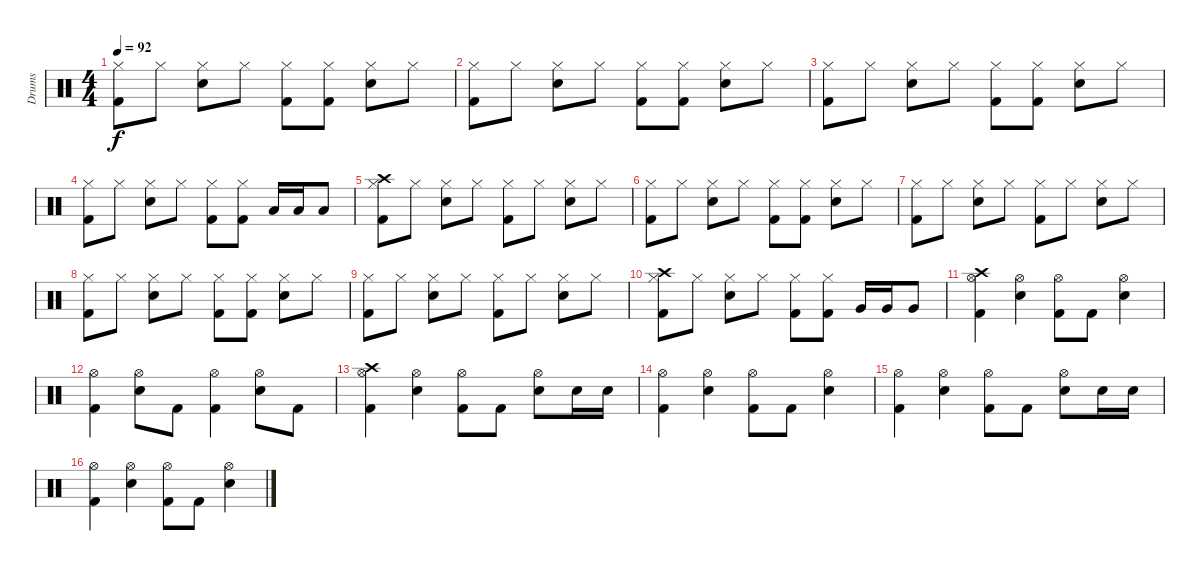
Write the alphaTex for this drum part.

\track ("Drums" "Drums") {instrument percussion}
\staff {score}
\articulation defaults
\ts (4 4)
\tempo 92
\clef neutral
\ks c
("Kick (hit) 2" "Hi-Hat (closed)").8{dy f} "Hi-Hat (closed)".8 ("Electric Snare (hit)" "Hi-Hat (closed)").8 "Hi-Hat (closed)".8 ("Kick (hit) 2" "Hi-Hat (closed)").8 ("Kick (hit) 2" "Hi-Hat (closed)").8 ("Electric Snare (hit)" "Hi-Hat (closed)").8 "Hi-Hat (closed)".8 |
("Kick (hit) 2" "Hi-Hat (closed)").8 "Hi-Hat (closed)".8 ("Electric Snare (hit)" "Hi-Hat (closed)").8 "Hi-Hat (closed)".8 ("Kick (hit) 2" "Hi-Hat (closed)").8 ("Kick (hit) 2" "Hi-Hat (closed)").8 ("Electric Snare (hit)" "Hi-Hat (closed)").8 "Hi-Hat (closed)".8 |
("Kick (hit) 2" "Hi-Hat (closed)").8 "Hi-Hat (closed)".8 ("Electric Snare (hit)" "Hi-Hat (closed)").8 "Hi-Hat (closed)".8 ("Kick (hit) 2" "Hi-Hat (closed)").8 ("Kick (hit) 2" "Hi-Hat (closed)").8 ("Electric Snare (hit)" "Hi-Hat (closed)").8 "Hi-Hat (closed)".8 |
("Kick (hit) 2" "Hi-Hat (closed)").8 "Hi-Hat (closed)".8 ("Electric Snare (hit)" "Hi-Hat (closed)").8 "Hi-Hat (closed)".8 ("Kick (hit) 2" "Hi-Hat (closed)").8 ("Kick (hit) 2" "Hi-Hat (closed)").8 "Low Tom (hit)".16 "Low Tom (hit)".16 "Low Tom (hit)".8 |
("Kick (hit) 2" "Hi-Hat (closed)" "Crash high (hit)").8 "Hi-Hat (closed)".8 ("Electric Snare (hit)" "Hi-Hat (closed)").8 "Hi-Hat (closed)".8 ("Kick (hit) 2" "Hi-Hat (closed)").8 "Hi-Hat (closed)".8 ("Electric Snare (hit)" "Hi-Hat (closed)").8 "Hi-Hat (closed)".8 |
("Kick (hit) 2" "Hi-Hat (closed)").8 "Hi-Hat (closed)".8 ("Electric Snare (hit)" "Hi-Hat (closed)").8 "Hi-Hat (closed)".8 ("Kick (hit) 2" "Hi-Hat (closed)").8 ("Kick (hit) 2" "Hi-Hat (closed)").8 ("Electric Snare (hit)" "Hi-Hat (closed)").8 "Hi-Hat (closed)".8 |
("Kick (hit) 2" "Hi-Hat (closed)").8 "Hi-Hat (closed)".8 ("Electric Snare (hit)" "Hi-Hat (closed)").8 "Hi-Hat (closed)".8 ("Kick (hit) 2" "Hi-Hat (closed)").8 "Hi-Hat (closed)".8 ("Electric Snare (hit)" "Hi-Hat (closed)").8 "Hi-Hat (closed)".8 |
("Kick (hit) 2" "Hi-Hat (closed)").8 "Hi-Hat (closed)".8 ("Electric Snare (hit)" "Hi-Hat (closed)").8 "Hi-Hat (closed)".8 ("Kick (hit) 2" "Hi-Hat (closed)").8 ("Kick (hit) 2" "Hi-Hat (closed)").8 ("Electric Snare (hit)" "Hi-Hat (closed)").8 "Hi-Hat (closed)".8 |
("Kick (hit) 2" "Hi-Hat (closed)").8 "Hi-Hat (closed)".8 ("Electric Snare (hit)" "Hi-Hat (closed)").8 "Hi-Hat (closed)".8 ("Kick (hit) 2" "Hi-Hat (closed)").8 "Hi-Hat (closed)".8 ("Electric Snare (hit)" "Hi-Hat (closed)").8 "Hi-Hat (closed)".8 |
("Kick (hit) 2" "Hi-Hat (closed)" "Crash high (hit)").8 "Hi-Hat (closed)".8 ("Electric Snare (hit)" "Hi-Hat (closed)").8 "Hi-Hat (closed)".8 ("Kick (hit) 2" "Hi-Hat (closed)").8 ("Kick (hit) 2" "Hi-Hat (closed)").8 "Very Low Tom (hit)".16 "Very Low Tom (hit)".16 "Very Low Tom (hit)".8 |
("Kick (hit) 2" "Hi-Hat (open)" "Crash high (hit)").4 ("Electric Snare (hit)" "Hi-Hat (open)").4 ("Kick (hit) 2" "Hi-Hat (open)").8 "Kick (hit) 2".8 ("Electric Snare (hit)" "Hi-Hat (open)").4 |
("Kick (hit) 2" "Hi-Hat (open)").4 ("Electric Snare (hit)" "Hi-Hat (open)").8 "Kick (hit) 2".8 ("Kick (hit) 2" "Hi-Hat (open)").4 ("Electric Snare (hit)" "Hi-Hat (open)").8 "Kick (hit) 2".8 |
("Kick (hit) 2" "Hi-Hat (open)" "Crash high (hit)").4 ("Electric Snare (hit)" "Hi-Hat (open)").4 ("Kick (hit) 2" "Hi-Hat (open)").8 "Kick (hit) 2".8 ("Electric Snare (hit)" "Hi-Hat (open)").8 "Electric Snare (hit)".16 "Electric Snare (hit)".16 |
("Kick (hit) 2" "Hi-Hat (open)").4 ("Electric Snare (hit)" "Hi-Hat (open)").4 ("Kick (hit) 2" "Hi-Hat (open)").8 "Kick (hit) 2".8 ("Electric Snare (hit)" "Hi-Hat (open)").4 |
("Kick (hit) 2" "Hi-Hat (open)").4 ("Electric Snare (hit)" "Hi-Hat (open)").4 ("Kick (hit) 2" "Hi-Hat (open)").8 "Kick (hit) 2".8 ("Electric Snare (hit)" "Hi-Hat (open)").8 "Electric Snare (hit)".16 "Electric Snare (hit)".16 |
("Kick (hit) 2" "Hi-Hat (open)").4 ("Electric Snare (hit)" "Hi-Hat (open)").4 ("Kick (hit) 2" "Hi-Hat (open)").8 "Kick (hit) 2".8 ("Electric Snare (hit)" "Hi-Hat (open)").4
